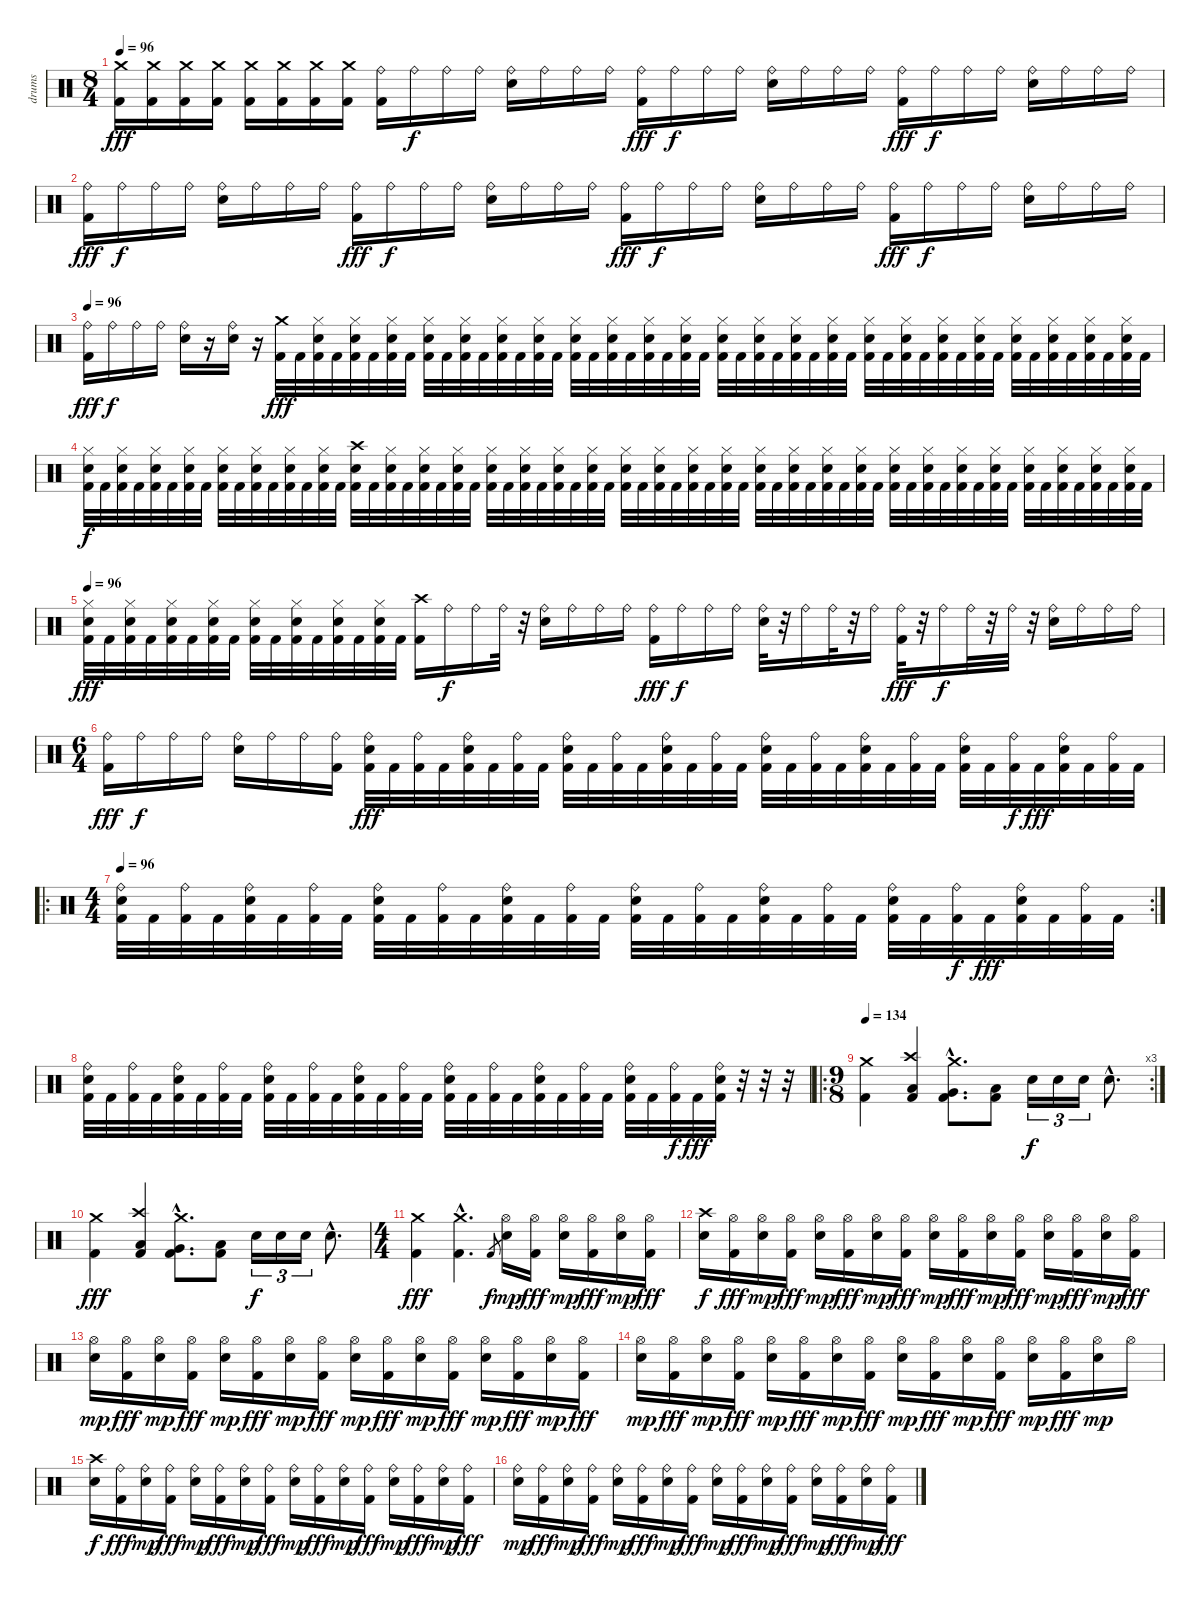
\track ("drums" "drums") {instrument percussion}
\staff {score}
\articulation defaults
\ts (8 4)
\tempo 96
\clef neutral
\ks c
("Crash medium (hit)" "Kick (hit) 2").16{dy fff} ("Crash medium (hit)" "Kick (hit) 2").16 ("Crash medium (hit)" "Kick (hit) 2").16 ("Crash medium (hit)" "Kick (hit) 2").16 ("Crash medium (hit)" "Kick (hit) 2").16 ("Crash medium (hit)" "Kick (hit) 2").16 ("Crash medium (hit)" "Kick (hit) 2").16 ("Crash medium (hit)" "Kick (hit) 2").16 ("Ride (bell)" "Kick (hit) 2").16 "Ride (bell)".16{dy f} "Ride (bell)".16 "Ride (bell)".16 ("Ride (bell)" "Snare (hit) 2").16 "Ride (bell)".16 "Ride (bell)".16 "Ride (bell)".16 ("Ride (bell)" "Kick (hit) 2").16{dy fff} "Ride (bell)".16{dy f} "Ride (bell)".16 "Ride (bell)".16 ("Ride (bell)" "Snare (hit) 2").16 "Ride (bell)".16 "Ride (bell)".16 "Ride (bell)".16 ("Ride (bell)" "Kick (hit) 2").16{dy fff} "Ride (bell)".16{dy f} "Ride (bell)".16 "Ride (bell)".16 ("Ride (bell)" "Snare (hit) 2").16 "Ride (bell)".16 "Ride (bell)".16 "Ride (bell)".16 |
("Ride (bell)" "Kick (hit) 2").16{dy fff} "Ride (bell)".16{dy f} "Ride (bell)".16 "Ride (bell)".16 ("Ride (bell)" "Snare (hit) 2").16 "Ride (bell)".16 "Ride (bell)".16 "Ride (bell)".16 ("Ride (bell)" "Kick (hit) 2").16{dy fff} "Ride (bell)".16{dy f} "Ride (bell)".16 "Ride (bell)".16 ("Ride (bell)" "Snare (hit) 2").16 "Ride (bell)".16 "Ride (bell)".16 "Ride (bell)".16 ("Ride (bell)" "Kick (hit) 2").16{dy fff} "Ride (bell)".16{dy f} "Ride (bell)".16 "Ride (bell)".16 ("Ride (bell)" "Snare (hit) 2").16 "Ride (bell)".16 "Ride (bell)".16 "Ride (bell)".16 ("Ride (bell)" "Kick (hit) 2").16{dy fff} "Ride (bell)".16{dy f} "Ride (bell)".16 "Ride (bell)".16 ("Ride (bell)" "Snare (hit) 2").16 "Ride (bell)".16 "Ride (bell)".16 "Ride (bell)".16 |
\tempo 96
("Ride (bell)" "Kick (hit) 2").16{dy fff} "Ride (bell)".16{dy f} "Ride (bell)".16 "Ride (bell)".16 ("Ride (bell)" "Snare (hit) 2").16 r.16 ("Ride (bell)" "Snare (hit) 2").16 r.16 ("Crash medium (hit)" "Kick (hit) 2").32{dy fff} "Kick (hit) 2".32 ("Hi-Hat (closed)" "Snare (hit) 2" "Kick (hit) 2").32 "Kick (hit) 2".32 ("Hi-Hat (closed)" "Snare (hit) 2" "Kick (hit) 2").32 "Kick (hit) 2".32 ("Hi-Hat (closed)" "Snare (hit) 2" "Kick (hit) 2").32 "Kick (hit) 2".32 ("Hi-Hat (closed)" "Snare (hit) 2" "Kick (hit) 2").32 "Kick (hit) 2".32 ("Hi-Hat (closed)" "Snare (hit) 2" "Kick (hit) 2").32 "Kick (hit) 2".32 ("Hi-Hat (closed)" "Snare (hit) 2" "Kick (hit) 2").32 "Kick (hit) 2".32 ("Hi-Hat (closed)" "Snare (hit) 2" "Kick (hit) 2").32 "Kick (hit) 2".32 ("Hi-Hat (closed)" "Snare (hit) 2" "Kick (hit) 2").32 "Kick (hit) 2".32 ("Hi-Hat (closed)" "Snare (hit) 2" "Kick (hit) 2").32 "Kick (hit) 2".32 ("Hi-Hat (closed)" "Snare (hit) 2" "Kick (hit) 2").32 "Kick (hit) 2".32 ("Hi-Hat (closed)" "Snare (hit) 2" "Kick (hit) 2").32 "Kick (hit) 2".32 ("Hi-Hat (closed)" "Snare (hit) 2" "Kick (hit) 2").32 "Kick (hit) 2".32 ("Hi-Hat (closed)" "Snare (hit) 2" "Kick (hit) 2").32 "Kick (hit) 2".32 ("Hi-Hat (closed)" "Snare (hit) 2" "Kick (hit) 2").32 "Kick (hit) 2".32 ("Hi-Hat (closed)" "Snare (hit) 2" "Kick (hit) 2").32 "Kick (hit) 2".32 ("Hi-Hat (closed)" "Snare (hit) 2" "Kick (hit) 2").32 "Kick (hit) 2".32 ("Hi-Hat (closed)" "Snare (hit) 2" "Kick (hit) 2").32 "Kick (hit) 2".32 ("Hi-Hat (closed)" "Snare (hit) 2" "Kick (hit) 2").32 "Kick (hit) 2".32 ("Hi-Hat (closed)" "Snare (hit) 2" "Kick (hit) 2").32 "Kick (hit) 2".32 ("Hi-Hat (closed)" "Snare (hit) 2" "Kick (hit) 2").32 "Kick (hit) 2".32 ("Hi-Hat (closed)" "Snare (hit) 2" "Kick (hit) 2").32 "Kick (hit) 2".32 ("Hi-Hat (closed)" "Snare (hit) 2" "Kick (hit) 2").32 "Kick (hit) 2".32 ("Hi-Hat (closed)" "Snare (hit) 2" "Kick (hit) 2").32 "Kick (hit) 2".32 |
("Hi-Hat (closed)" "Snare (hit) 2" "Kick (hit) 2").32{dy f} "Kick (hit) 2".32 ("Hi-Hat (closed)" "Snare (hit) 2" "Kick (hit) 2").32 "Kick (hit) 2".32 ("Hi-Hat (closed)" "Snare (hit) 2" "Kick (hit) 2").32 "Kick (hit) 2".32 ("Hi-Hat (closed)" "Snare (hit) 2" "Kick (hit) 2").32 "Kick (hit) 2".32 ("Hi-Hat (closed)" "Snare (hit) 2" "Kick (hit) 2").32 "Kick (hit) 2".32 ("Hi-Hat (closed)" "Snare (hit) 2" "Kick (hit) 2").32 "Kick (hit) 2".32 ("Hi-Hat (closed)" "Snare (hit) 2" "Kick (hit) 2").32 "Kick (hit) 2".32 ("Hi-Hat (closed)" "Snare (hit) 2" "Kick (hit) 2").32 "Kick (hit) 2".32 ("Crash high (hit)" "Snare (hit) 2" "Kick (hit) 2").32 "Kick (hit) 2".32 ("Hi-Hat (closed)" "Snare (hit) 2" "Kick (hit) 2").32 "Kick (hit) 2".32 ("Hi-Hat (closed)" "Snare (hit) 2" "Kick (hit) 2").32 "Kick (hit) 2".32 ("Hi-Hat (closed)" "Snare (hit) 2" "Kick (hit) 2").32 "Kick (hit) 2".32 ("Hi-Hat (closed)" "Snare (hit) 2" "Kick (hit) 2").32 "Kick (hit) 2".32 ("Hi-Hat (closed)" "Snare (hit) 2" "Kick (hit) 2").32 "Kick (hit) 2".32 ("Hi-Hat (closed)" "Snare (hit) 2" "Kick (hit) 2").32 "Kick (hit) 2".32 ("Hi-Hat (closed)" "Snare (hit) 2" "Kick (hit) 2").32 "Kick (hit) 2".32 ("Hi-Hat (closed)" "Snare (hit) 2" "Kick (hit) 2").32 "Kick (hit) 2".32 ("Hi-Hat (closed)" "Snare (hit) 2" "Kick (hit) 2").32 "Kick (hit) 2".32 ("Hi-Hat (closed)" "Snare (hit) 2" "Kick (hit) 2").32 "Kick (hit) 2".32 ("Hi-Hat (closed)" "Snare (hit) 2" "Kick (hit) 2").32 "Kick (hit) 2".32 ("Hi-Hat (closed)" "Snare (hit) 2" "Kick (hit) 2").32 "Kick (hit) 2".32 ("Hi-Hat (closed)" "Snare (hit) 2" "Kick (hit) 2").32 "Kick (hit) 2".32 ("Hi-Hat (closed)" "Snare (hit) 2" "Kick (hit) 2").32 "Kick (hit) 2".32 ("Hi-Hat (closed)" "Snare (hit) 2" "Kick (hit) 2").32 "Kick (hit) 2".32 ("Hi-Hat (closed)" "Snare (hit) 2" "Kick (hit) 2").32 "Kick (hit) 2".32 ("Hi-Hat (closed)" "Snare (hit) 2" "Kick (hit) 2").32 "Kick (hit) 2".32 ("Hi-Hat (closed)" "Snare (hit) 2" "Kick (hit) 2").32 "Kick (hit) 2".32 ("Hi-Hat (closed)" "Snare (hit) 2" "Kick (hit) 2").32 "Kick (hit) 2".32 ("Hi-Hat (closed)" "Snare (hit) 2" "Kick (hit) 2").32 "Kick (hit) 2".32 ("Hi-Hat (closed)" "Snare (hit) 2" "Kick (hit) 2").32 "Kick (hit) 2".32 ("Hi-Hat (closed)" "Snare (hit) 2" "Kick (hit) 2").32 "Kick (hit) 2".32 ("Hi-Hat (closed)" "Snare (hit) 2" "Kick (hit) 2").32 "Kick (hit) 2".32 |
\tempo 96
("Hi-Hat (closed)" "Snare (hit) 2" "Kick (hit) 2").32{dy fff} "Kick (hit) 2".32 ("Hi-Hat (closed)" "Snare (hit) 2" "Kick (hit) 2").32 "Kick (hit) 2".32 ("Hi-Hat (closed)" "Snare (hit) 2" "Kick (hit) 2").32 "Kick (hit) 2".32 ("Hi-Hat (closed)" "Snare (hit) 2" "Kick (hit) 2").32 "Kick (hit) 2".32 ("Hi-Hat (closed)" "Snare (hit) 2" "Kick (hit) 2").32 "Kick (hit) 2".32 ("Hi-Hat (closed)" "Snare (hit) 2" "Kick (hit) 2").32 "Kick (hit) 2".32 ("Hi-Hat (closed)" "Snare (hit) 2" "Kick (hit) 2").32 "Kick (hit) 2".32 ("Hi-Hat (closed)" "Snare (hit) 2" "Kick (hit) 2").32 "Kick (hit) 2".32 ("Crash high (hit)" "Kick (hit) 2").16 "Ride (bell)".16{dy f} "Ride (bell)".16 "Ride (bell)".32 r.32 ("Ride (bell)" "Snare (hit) 2").16 "Ride (bell)".16 "Ride (bell)".16 "Ride (bell)".16 ("Ride (bell)" "Kick (hit) 2").16{dy fff} "Ride (bell)".16{dy f} "Ride (bell)".16 "Ride (bell)".16 ("Ride (bell)" "Snare (hit) 2").32 r.32 "Ride (bell)".16 "Ride (bell)".32 r.32 "Ride (bell)".16 ("Ride (bell)" "Kick (hit) 2").32{dy fff} r.32 "Ride (bell)".16{dy f} "Ride (bell)".32 r.32 "Ride (bell)".32 r.32 ("Ride (bell)" "Snare (hit) 2").16 "Ride (bell)".16 "Ride (bell)".16 "Ride (bell)".16 |
\ts (6 4)
("Ride (bell)" "Kick (hit) 2").16{dy fff} "Ride (bell)".16{dy f} "Ride (bell)".16 "Ride (bell)".16 ("Ride (bell)" "Snare (hit) 2").16 "Ride (bell)".16 "Ride (bell)".16 ("Ride (bell)" "Kick (hit) 2").16 ("Ride (bell)" "Snare (hit) 2" "Kick (hit) 2").32{dy fff} "Kick (hit) 2".32 ("Ride (bell)" "Kick (hit) 2").32 "Kick (hit) 2".32 ("Ride (bell)" "Snare (hit) 2" "Kick (hit) 2").32 "Kick (hit) 2".32 ("Ride (bell)" "Kick (hit) 2").32 "Kick (hit) 2".32 ("Ride (bell)" "Snare (hit) 2" "Kick (hit) 2").32 "Kick (hit) 2".32 ("Ride (bell)" "Kick (hit) 2").32 "Kick (hit) 2".32 ("Ride (bell)" "Snare (hit) 2" "Kick (hit) 2").32 "Kick (hit) 2".32 ("Ride (bell)" "Kick (hit) 2").32 "Kick (hit) 2".32 ("Ride (bell)" "Snare (hit) 2" "Kick (hit) 2").32 "Kick (hit) 2".32 ("Ride (bell)" "Kick (hit) 2").32 "Kick (hit) 2".32 ("Ride (bell)" "Snare (hit) 2" "Kick (hit) 2").32 "Kick (hit) 2".32 ("Ride (bell)" "Kick (hit) 2").32 "Kick (hit) 2".32 ("Ride (bell)" "Snare (hit) 2" "Kick (hit) 2").32 "Kick (hit) 2".32 ("Ride (bell)" "Kick (hit) 2").32{dy f} "Kick (hit) 2".32{dy fff} ("Ride (bell)" "Snare (hit) 2" "Kick (hit) 2").32 "Kick (hit) 2".32 ("Ride (bell)" "Kick (hit) 2").32 "Kick (hit) 2".32 |
\ro
\rc 2
\ts (4 4)
\tempo 96
("Ride (bell)" "Snare (hit) 2" "Kick (hit) 2").32 "Kick (hit) 2".32 ("Ride (bell)" "Kick (hit) 2").32 "Kick (hit) 2".32 ("Ride (bell)" "Snare (hit) 2" "Kick (hit) 2").32 "Kick (hit) 2".32 ("Ride (bell)" "Kick (hit) 2").32 "Kick (hit) 2".32 ("Ride (bell)" "Snare (hit) 2" "Kick (hit) 2").32 "Kick (hit) 2".32 ("Ride (bell)" "Kick (hit) 2").32 "Kick (hit) 2".32 ("Ride (bell)" "Snare (hit) 2" "Kick (hit) 2").32 "Kick (hit) 2".32 ("Ride (bell)" "Kick (hit) 2").32 "Kick (hit) 2".32 ("Ride (bell)" "Snare (hit) 2" "Kick (hit) 2").32 "Kick (hit) 2".32 ("Ride (bell)" "Kick (hit) 2").32 "Kick (hit) 2".32 ("Ride (bell)" "Snare (hit) 2" "Kick (hit) 2").32 "Kick (hit) 2".32 ("Ride (bell)" "Kick (hit) 2").32 "Kick (hit) 2".32 ("Ride (bell)" "Snare (hit) 2" "Kick (hit) 2").32 "Kick (hit) 2".32 ("Ride (bell)" "Kick (hit) 2").32{dy f} "Kick (hit) 2".32{dy fff} ("Ride (bell)" "Snare (hit) 2" "Kick (hit) 2").32 "Kick (hit) 2".32 ("Ride (bell)" "Kick (hit) 2").32 "Kick (hit) 2".32 |
("Ride (bell)" "Snare (hit) 2" "Kick (hit) 2").32 "Kick (hit) 2".32 ("Ride (bell)" "Kick (hit) 2").32 "Kick (hit) 2".32 ("Ride (bell)" "Snare (hit) 2" "Kick (hit) 2").32 "Kick (hit) 2".32 ("Ride (bell)" "Kick (hit) 2").32 "Kick (hit) 2".32 ("Ride (bell)" "Snare (hit) 2" "Kick (hit) 2").32 "Kick (hit) 2".32 ("Ride (bell)" "Kick (hit) 2").32 "Kick (hit) 2".32 ("Ride (bell)" "Snare (hit) 2" "Kick (hit) 2").32 "Kick (hit) 2".32 ("Ride (bell)" "Kick (hit) 2").32 "Kick (hit) 2".32 ("Ride (bell)" "Snare (hit) 2" "Kick (hit) 2").32 "Kick (hit) 2".32 ("Ride (bell)" "Kick (hit) 2").32 "Kick (hit) 2".32 ("Ride (bell)" "Snare (hit) 2" "Kick (hit) 2").32 "Kick (hit) 2".32 ("Ride (bell)" "Kick (hit) 2").32 "Kick (hit) 2".32 ("Ride (bell)" "Snare (hit) 2" "Kick (hit) 2").32 "Kick (hit) 2".32 ("Ride (bell)" "Kick (hit) 2").32{dy f} "Kick (hit) 2".32{dy fff} ("Ride (bell)" "Snare (hit) 2" "Kick (hit) 2").32 r.32 r.32 r.32 |
\ro
\rc 3
\ts (9 8)
\tempo 134
("Crash medium (hit)" "Kick (hit) 2").4 ("Crash high (hit)" "Low Tom (hit)" "Kick (hit) 2").4 ("Crash medium (hit)"{hac} "Very Low Tom (hit)"{hac} "Kick (hit) 2"{hac}).8{d} ("Low Floor Tom (hit)" "Kick (hit) 2").8 "Snare (hit) 2".16{tu (3 2) dy f} "Snare (hit) 2".16{tu (3 2)} "Snare (hit) 2".16{tu (3 2)} "Snare (hit) 2"{hac}.8{d} |
("Crash medium (hit)" "Kick (hit) 2").4{dy fff} ("Crash high (hit)" "Low Tom (hit)" "Kick (hit) 2").4 ("Crash medium (hit)"{hac} "Very Low Tom (hit)"{hac} "Kick (hit) 2"{hac}).8{d} ("Low Floor Tom (hit)" "Kick (hit) 2").8 "Snare (hit) 2".16{tu (3 2) dy f} "Snare (hit) 2".16{tu (3 2)} "Snare (hit) 2".16{tu (3 2)} "Snare (hit) 2"{hac}.8{d} |
\ts (4 4)
("Crash medium (hit)" "Kick (hit) 2").4{dy fff} ("Crash medium (hit)"{hac} "Kick (hit) 2"{hac}).4{d} "Kick (hit) 2".8{gr dy f} ("Hi-Hat (open)" "Snare (hit) 2").16{dy mp} ("Hi-Hat (open)" "Kick (hit) 2").16{dy fff} ("Hi-Hat (open)" "Snare (hit) 2").16{dy mp} ("Hi-Hat (open)" "Kick (hit) 2").16{dy fff} ("Hi-Hat (open)" "Snare (hit) 2").16{dy mp} ("Hi-Hat (open)" "Kick (hit) 2").16{dy fff} |
("Crash high (hit)" "Snare (hit) 2").16{dy f} ("Hi-Hat (open)" "Kick (hit) 2").16{dy fff} ("Hi-Hat (open)" "Snare (hit) 2").16{dy mp} ("Hi-Hat (open)" "Kick (hit) 2").16{dy fff} ("Hi-Hat (open)" "Snare (hit) 2").16{dy mp} ("Hi-Hat (open)" "Kick (hit) 2").16{dy fff} ("Hi-Hat (open)" "Snare (hit) 2").16{dy mp} ("Hi-Hat (open)" "Kick (hit) 2").16{dy fff} ("Hi-Hat (open)" "Snare (hit) 2").16{dy mp} ("Hi-Hat (open)" "Kick (hit) 2").16{dy fff} ("Hi-Hat (open)" "Snare (hit) 2").16{dy mp} ("Hi-Hat (open)" "Kick (hit) 2").16{dy fff} ("Hi-Hat (open)" "Snare (hit) 2").16{dy mp} ("Hi-Hat (open)" "Kick (hit) 2").16{dy fff} ("Hi-Hat (open)" "Snare (hit) 2").16{dy mp} ("Hi-Hat (open)" "Kick (hit) 2").16{dy fff} |
("Hi-Hat (open)" "Snare (hit) 2").16{dy mp} ("Hi-Hat (open)" "Kick (hit) 2").16{dy fff} ("Hi-Hat (open)" "Snare (hit) 2").16{dy mp} ("Hi-Hat (open)" "Kick (hit) 2").16{dy fff} ("Hi-Hat (open)" "Snare (hit) 2").16{dy mp} ("Hi-Hat (open)" "Kick (hit) 2").16{dy fff} ("Hi-Hat (open)" "Snare (hit) 2").16{dy mp} ("Hi-Hat (open)" "Kick (hit) 2").16{dy fff} ("Hi-Hat (open)" "Snare (hit) 2").16{dy mp} ("Hi-Hat (open)" "Kick (hit) 2").16{dy fff} ("Hi-Hat (open)" "Snare (hit) 2").16{dy mp} ("Hi-Hat (open)" "Kick (hit) 2").16{dy fff} ("Hi-Hat (open)" "Snare (hit) 2").16{dy mp} ("Hi-Hat (open)" "Kick (hit) 2").16{dy fff} ("Hi-Hat (open)" "Snare (hit) 2").16{dy mp} ("Hi-Hat (open)" "Kick (hit) 2").16{dy fff} |
("Hi-Hat (open)" "Snare (hit) 2").16{dy mp} ("Hi-Hat (open)" "Kick (hit) 2").16{dy fff} ("Hi-Hat (open)" "Snare (hit) 2").16{dy mp} ("Hi-Hat (open)" "Kick (hit) 2").16{dy fff} ("Hi-Hat (open)" "Snare (hit) 2").16{dy mp} ("Hi-Hat (open)" "Kick (hit) 2").16{dy fff} ("Hi-Hat (open)" "Snare (hit) 2").16{dy mp} ("Hi-Hat (open)" "Kick (hit) 2").16{dy fff} ("Hi-Hat (open)" "Snare (hit) 2").16{dy mp} ("Hi-Hat (open)" "Kick (hit) 2").16{dy fff} ("Hi-Hat (open)" "Snare (hit) 2").16{dy mp} ("Hi-Hat (open)" "Kick (hit) 2").16{dy fff} ("Hi-Hat (open)" "Snare (hit) 2").16{dy mp} ("Hi-Hat (open)" "Kick (hit) 2").16{dy fff} ("Hi-Hat (open)" "Snare (hit) 2").16{dy mp} "Hi-Hat (open)".16 |
("Crash high (hit)" "Snare (hit) 2").16{dy f} ("Ride (bell)" "Kick (hit) 2").16{dy fff} ("Ride (bell)" "Snare (hit) 2").16{dy mp} ("Ride (bell)" "Kick (hit) 2").16{dy fff} ("Ride (bell)" "Snare (hit) 2").16{dy mp} ("Ride (bell)" "Kick (hit) 2").16{dy fff} ("Ride (bell)" "Snare (hit) 2").16{dy mp} ("Ride (bell)" "Kick (hit) 2").16{dy fff} ("Ride (bell)" "Snare (hit) 2").16{dy mp} ("Ride (bell)" "Kick (hit) 2").16{dy fff} ("Ride (bell)" "Snare (hit) 2").16{dy mp} ("Ride (bell)" "Kick (hit) 2").16{dy fff} ("Ride (bell)" "Snare (hit) 2").16{dy mp} ("Ride (bell)" "Kick (hit) 2").16{dy fff} ("Ride (bell)" "Snare (hit) 2").16{dy mp} ("Ride (bell)" "Kick (hit) 2").16{dy fff} |
("Ride (bell)" "Snare (hit) 2").16{dy mp} ("Ride (bell)" "Kick (hit) 2").16{dy fff} ("Ride (bell)" "Snare (hit) 2").16{dy mp} ("Ride (bell)" "Kick (hit) 2").16{dy fff} ("Ride (bell)" "Snare (hit) 2").16{dy mp} ("Ride (bell)" "Kick (hit) 2").16{dy fff} ("Ride (bell)" "Snare (hit) 2").16{dy mp} ("Ride (bell)" "Kick (hit) 2").16{dy fff} ("Ride (bell)" "Snare (hit) 2").16{dy mp} ("Ride (bell)" "Kick (hit) 2").16{dy fff} ("Ride (bell)" "Snare (hit) 2").16{dy mp} ("Ride (bell)" "Kick (hit) 2").16{dy fff} ("Ride (bell)" "Snare (hit) 2").16{dy mp} ("Ride (bell)" "Kick (hit) 2").16{dy fff} ("Ride (bell)" "Snare (hit) 2").16{dy mp} ("Ride (bell)" "Kick (hit) 2").16{dy fff}
